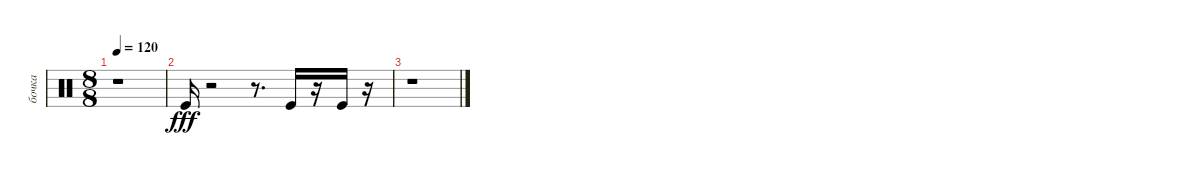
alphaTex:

\track ("бочка" "бочка") {instrument percussion}
\staff {score}
\articulation defaults
\ts (8 8)
\tempo 120
\clef neutral
\ks c
r.1{dy fff} |
"Kick (hit)".16{volume 6} r.2 r.8{d} "Kick (hit)".16{volume 5} r.16 "Kick (hit)".16{volume 4} r.16 |
r.1
